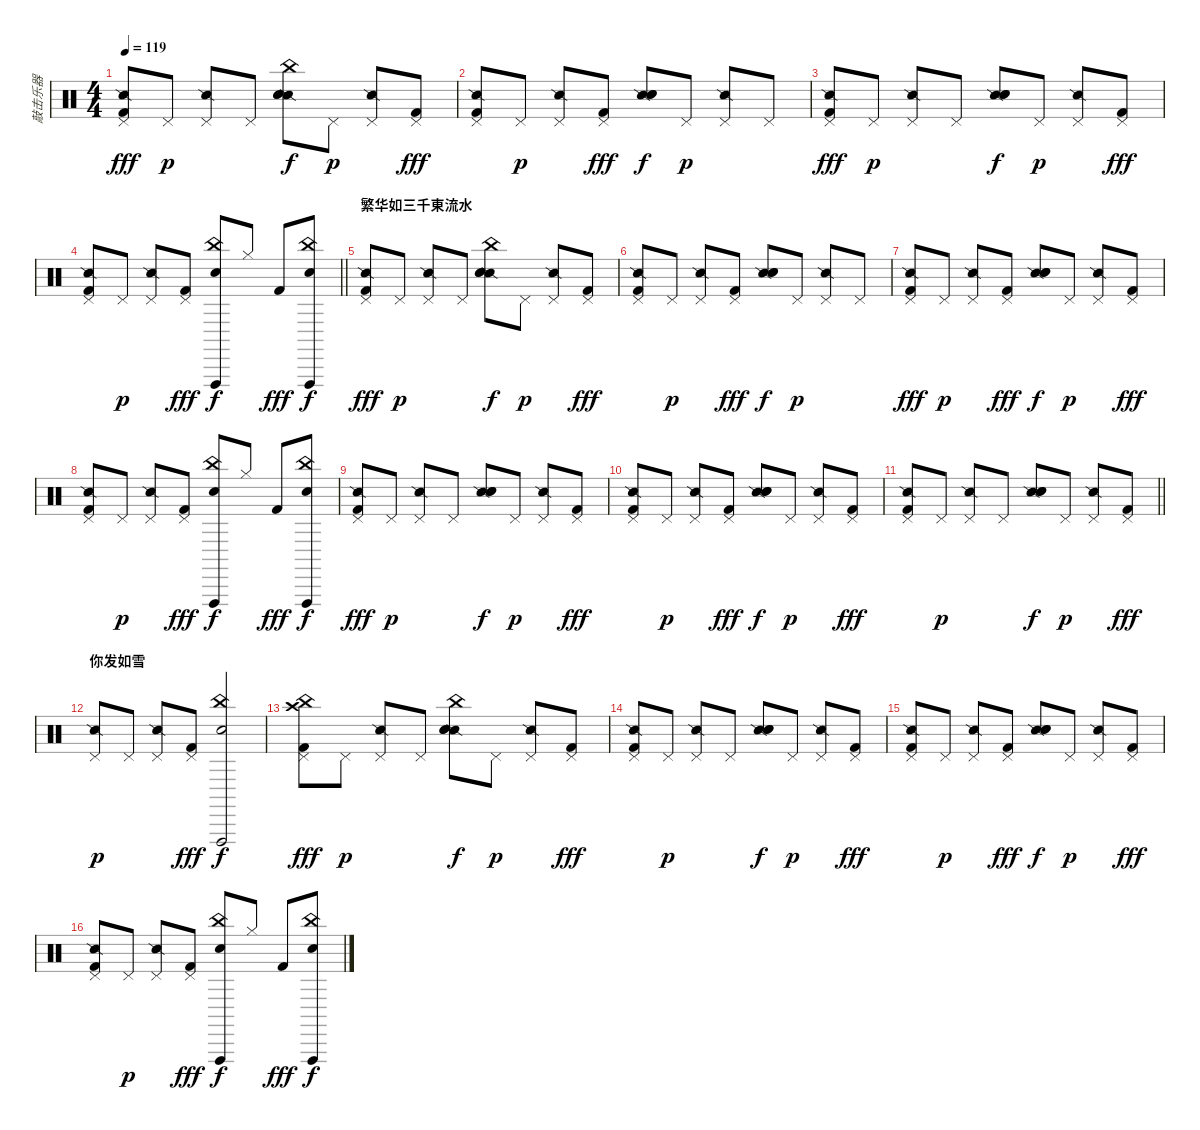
\track ("敲击乐器" "敲击乐器") {instrument percussion}
\staff {score}
\articulation defaults
\ts (4 4)
\tempo 119
\clef neutral
\ks c
("Snare (side stick) 2" "Pedal Hi-Hat (hit)" "Kick (hit) 2").8{dy fff} "Pedal Hi-Hat (hit)".8{dy p} ("Snare (side stick) 2" "Pedal Hi-Hat (hit)").8 "Pedal Hi-Hat (hit)".8 ("Snare (side stick) 2" "Snare (hit) 2" "Hand Clap (hit)" "China (hit)").8{dy f} "Pedal Hi-Hat (hit)".8{dy p} ("Snare (side stick) 2" "Pedal Hi-Hat (hit)").8 ("Pedal Hi-Hat (hit)" "Kick (hit) 2").8{dy fff} |
("Snare (side stick) 2" "Pedal Hi-Hat (hit)" "Kick (hit) 2").8 "Pedal Hi-Hat (hit)".8{dy p} ("Snare (side stick) 2" "Pedal Hi-Hat (hit)").8 ("Pedal Hi-Hat (hit)" "Kick (hit) 2").8{dy fff} ("Snare (side stick) 2" "Snare (hit) 2" "Hand Clap (hit)").8{dy f} "Pedal Hi-Hat (hit)".8{dy p} ("Snare (side stick) 2" "Pedal Hi-Hat (hit)").8 "Pedal Hi-Hat (hit)".8 |
("Snare (side stick) 2" "Pedal Hi-Hat (hit)" "Kick (hit) 2").8{dy fff} "Pedal Hi-Hat (hit)".8{dy p} ("Snare (side stick) 2" "Pedal Hi-Hat (hit)").8 "Pedal Hi-Hat (hit)".8 ("Snare (side stick) 2" "Snare (hit) 2" "Hand Clap (hit)").8{dy f} "Pedal Hi-Hat (hit)".8{dy p} ("Snare (side stick) 2" "Pedal Hi-Hat (hit)").8 ("Pedal Hi-Hat (hit)" "Kick (hit) 2").8{dy fff} |
\barLineRight lightlight
("Snare (side stick) 2" "Pedal Hi-Hat (hit)" "Kick (hit) 2").8 "Pedal Hi-Hat (hit)".8{dy p} ("Snare (side stick) 2" "Pedal Hi-Hat (hit)").8 ("Pedal Hi-Hat (hit)" "Kick (hit) 2").8{dy fff} ("China (hit)" "Vibraslap (hit)" "Hand Clap (hit)").8{dy f} "Hi-Hat (closed)".8 "Kick (hit) 2".8{dy fff} ("China (hit)" "Vibraslap (hit)" "Hand Clap (hit)").8{dy f} |
\section ("" "繁华如三千東流水")
("Snare (side stick) 2" "Pedal Hi-Hat (hit)" "Kick (hit) 2").8{dy fff} "Pedal Hi-Hat (hit)".8{dy p} ("Snare (side stick) 2" "Pedal Hi-Hat (hit)").8 "Pedal Hi-Hat (hit)".8 ("Snare (side stick) 2" "Snare (hit) 2" "Hand Clap (hit)" "China (hit)").8{dy f} "Pedal Hi-Hat (hit)".8{dy p} ("Snare (side stick) 2" "Pedal Hi-Hat (hit)").8 ("Pedal Hi-Hat (hit)" "Kick (hit) 2").8{dy fff} |
("Snare (side stick) 2" "Pedal Hi-Hat (hit)" "Kick (hit) 2").8 "Pedal Hi-Hat (hit)".8{dy p} ("Snare (side stick) 2" "Pedal Hi-Hat (hit)").8 ("Pedal Hi-Hat (hit)" "Kick (hit) 2").8{dy fff} ("Snare (side stick) 2" "Snare (hit) 2" "Hand Clap (hit)").8{dy f} "Pedal Hi-Hat (hit)".8{dy p} ("Snare (side stick) 2" "Pedal Hi-Hat (hit)").8 "Pedal Hi-Hat (hit)".8 |
("Snare (side stick) 2" "Pedal Hi-Hat (hit)" "Kick (hit) 2").8{dy fff} "Pedal Hi-Hat (hit)".8{dy p} ("Snare (side stick) 2" "Pedal Hi-Hat (hit)").8 ("Pedal Hi-Hat (hit)" "Kick (hit) 2").8{dy fff} ("Snare (side stick) 2" "Snare (hit) 2" "Hand Clap (hit)").8{dy f} "Pedal Hi-Hat (hit)".8{dy p} ("Snare (side stick) 2" "Pedal Hi-Hat (hit)").8 ("Pedal Hi-Hat (hit)" "Kick (hit) 2").8{dy fff} |
("Snare (side stick) 2" "Pedal Hi-Hat (hit)" "Kick (hit) 2").8 "Pedal Hi-Hat (hit)".8{dy p} ("Snare (side stick) 2" "Pedal Hi-Hat (hit)").8 ("Pedal Hi-Hat (hit)" "Kick (hit) 2").8{dy fff} ("China (hit)" "Vibraslap (hit)" "Hand Clap (hit)").8{dy f} "Hi-Hat (closed)".8 "Kick (hit) 2".8{dy fff} ("China (hit)" "Vibraslap (hit)" "Hand Clap (hit)").8{dy f} |
("Snare (side stick) 2" "Pedal Hi-Hat (hit)" "Kick (hit) 2").8{dy fff} "Pedal Hi-Hat (hit)".8{dy p} ("Snare (side stick) 2" "Pedal Hi-Hat (hit)").8 "Pedal Hi-Hat (hit)".8 ("Snare (side stick) 2" "Snare (hit) 2" "Hand Clap (hit)").8{dy f} "Pedal Hi-Hat (hit)".8{dy p} ("Snare (side stick) 2" "Pedal Hi-Hat (hit)").8 ("Pedal Hi-Hat (hit)" "Kick (hit) 2").8{dy fff} |
("Snare (side stick) 2" "Pedal Hi-Hat (hit)" "Kick (hit) 2").8 "Pedal Hi-Hat (hit)".8{dy p} ("Snare (side stick) 2" "Pedal Hi-Hat (hit)").8 ("Pedal Hi-Hat (hit)" "Kick (hit) 2").8{dy fff} ("Snare (side stick) 2" "Snare (hit) 2" "Hand Clap (hit)").8{dy f} "Pedal Hi-Hat (hit)".8{dy p} ("Snare (side stick) 2" "Pedal Hi-Hat (hit)").8 ("Pedal Hi-Hat (hit)" "Kick (hit) 2").8{dy fff} |
\barLineRight lightlight
("Snare (side stick) 2" "Pedal Hi-Hat (hit)" "Kick (hit) 2").8 "Pedal Hi-Hat (hit)".8{dy p} ("Snare (side stick) 2" "Pedal Hi-Hat (hit)").8 "Pedal Hi-Hat (hit)".8 ("Snare (side stick) 2" "Snare (hit) 2" "Hand Clap (hit)").8{dy f} "Pedal Hi-Hat (hit)".8{dy p} ("Snare (side stick) 2" "Pedal Hi-Hat (hit)").8 ("Pedal Hi-Hat (hit)" "Kick (hit) 2").8{dy fff} |
\section ("" "你发如雪")
("Snare (side stick) 2" "Pedal Hi-Hat (hit)").8{dy p} "Pedal Hi-Hat (hit)".8 ("Snare (side stick) 2" "Pedal Hi-Hat (hit)").8 ("Pedal Hi-Hat (hit)" "Kick (hit) 2").8{dy fff} ("China (hit)" "Vibraslap (hit)" "Hand Clap (hit)").2{dy f} |
("China (hit)" "Crash high (hit)" "Pedal Hi-Hat (hit)" "Kick (hit) 2").8{dy fff} "Pedal Hi-Hat (hit)".8{dy p} ("Snare (side stick) 2" "Pedal Hi-Hat (hit)").8 "Pedal Hi-Hat (hit)".8 ("Snare (side stick) 2" "Snare (hit) 2" "Hand Clap (hit)" "China (hit)").8{dy f} "Pedal Hi-Hat (hit)".8{dy p} ("Snare (side stick) 2" "Pedal Hi-Hat (hit)").8 ("Pedal Hi-Hat (hit)" "Kick (hit) 2").8{dy fff} |
("Snare (side stick) 2" "Pedal Hi-Hat (hit)" "Kick (hit) 2").8 "Pedal Hi-Hat (hit)".8{dy p} ("Snare (side stick) 2" "Pedal Hi-Hat (hit)").8 "Pedal Hi-Hat (hit)".8 ("Snare (side stick) 2" "Snare (hit) 2" "Hand Clap (hit)").8{dy f} "Pedal Hi-Hat (hit)".8{dy p} ("Snare (side stick) 2" "Pedal Hi-Hat (hit)").8 ("Pedal Hi-Hat (hit)" "Kick (hit) 2").8{dy fff} |
("Snare (side stick) 2" "Pedal Hi-Hat (hit)" "Kick (hit) 2").8 "Pedal Hi-Hat (hit)".8{dy p} ("Snare (side stick) 2" "Pedal Hi-Hat (hit)").8 ("Pedal Hi-Hat (hit)" "Kick (hit) 2").8{dy fff} ("Snare (side stick) 2" "Snare (hit) 2" "Hand Clap (hit)").8{dy f} "Pedal Hi-Hat (hit)".8{dy p} ("Snare (side stick) 2" "Pedal Hi-Hat (hit)").8 ("Pedal Hi-Hat (hit)" "Kick (hit) 2").8{dy fff} |
("Snare (side stick) 2" "Pedal Hi-Hat (hit)" "Kick (hit) 2").8 "Pedal Hi-Hat (hit)".8{dy p} ("Snare (side stick) 2" "Pedal Hi-Hat (hit)").8 ("Pedal Hi-Hat (hit)" "Kick (hit) 2").8{dy fff} ("China (hit)" "Vibraslap (hit)" "Hand Clap (hit)").8{dy f} "Hi-Hat (closed)".8 "Kick (hit) 2".8{dy fff} ("China (hit)" "Vibraslap (hit)" "Hand Clap (hit)").8{dy f}
